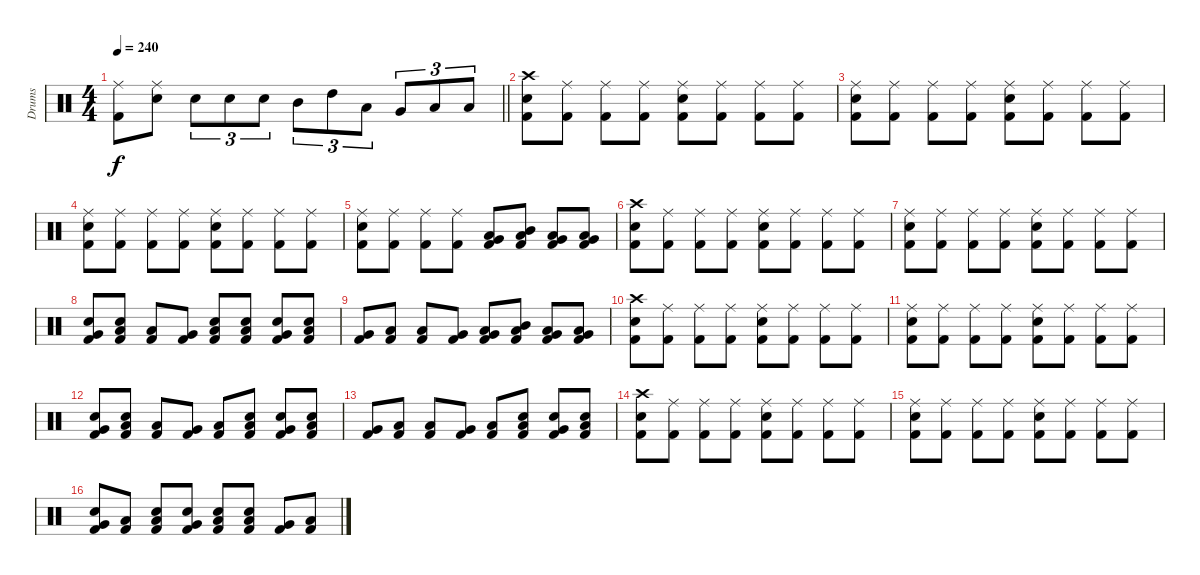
\track ("Drums" "Drums") {instrument percussion}
\staff {score}
\articulation defaults
\ts (4 4)
\tempo 240
\clef neutral
\barLineRight lightlight
\ks c
("Ride (middle)" "Kick (hit) 2").8{dy f} ("Ride (middle)" "Electric Snare (hit)").8 "Electric Snare (hit)".8{tu (3 2)} "Electric Snare (hit)".8{tu (3 2)} "Electric Snare (hit)".8{tu (3 2)} "Mid Tom (hit)".8{tu (3 2)} "High Tom (hit)".8{tu (3 2)} "Low Tom (hit)".8{tu (3 2)} "Very Low Tom (hit)".8{tu (3 2)} "Low Tom (hit)".8{tu (3 2)} "Low Floor Tom (hit)".8{tu (3 2)} |
("Crash high (hit)" "Electric Snare (hit)" "Kick (hit) 2").8 ("Ride (middle)" "Kick (hit) 2").8 ("Ride (middle)" "Kick (hit) 2").8 ("Ride (middle)" "Kick (hit) 2").8 ("Ride (middle)" "Electric Snare (hit)" "Kick (hit) 2").8 ("Ride (middle)" "Kick (hit) 2").8 ("Ride (middle)" "Kick (hit) 2").8 ("Ride (middle)" "Kick (hit) 2").8 |
("Ride (middle)" "Electric Snare (hit)" "Kick (hit) 2").8 ("Ride (middle)" "Kick (hit) 2").8 ("Ride (middle)" "Kick (hit) 2").8 ("Ride (middle)" "Kick (hit) 2").8 ("Ride (middle)" "Electric Snare (hit)" "Kick (hit) 2").8 ("Ride (middle)" "Kick (hit) 2").8 ("Ride (middle)" "Kick (hit) 2").8 ("Ride (middle)" "Kick (hit) 2").8 |
("Ride (middle)" "Electric Snare (hit)" "Kick (hit) 2").8 ("Ride (middle)" "Kick (hit) 2").8 ("Ride (middle)" "Kick (hit) 2").8 ("Ride (middle)" "Kick (hit) 2").8 ("Ride (middle)" "Electric Snare (hit)" "Kick (hit) 2").8 ("Ride (middle)" "Kick (hit) 2").8 ("Ride (middle)" "Kick (hit) 2").8 ("Ride (middle)" "Kick (hit) 2").8 |
("Ride (middle)" "Electric Snare (hit)" "Kick (hit) 2").8 ("Ride (middle)" "Kick (hit) 2").8 ("Ride (middle)" "Kick (hit) 2").8 ("Ride (middle)" "Kick (hit) 2").8 ("Low Floor Tom (hit)" "Very Low Tom (hit)" "Kick (hit) 2").8 ("Low Tom (hit)" "Mid Tom (hit)" "Kick (hit) 2").8 ("Very Low Tom (hit)" "Low Tom (hit)" "Kick (hit) 2").8 ("Low Floor Tom (hit)" "Very Low Tom (hit)" "Kick (hit) 2").8 |
("Crash high (hit)" "Electric Snare (hit)" "Kick (hit) 2").8 ("Ride (middle)" "Kick (hit) 2").8 ("Ride (middle)" "Kick (hit) 2").8 ("Ride (middle)" "Kick (hit) 2").8 ("Ride (middle)" "Electric Snare (hit)" "Kick (hit) 2").8 ("Ride (middle)" "Kick (hit) 2").8 ("Ride (middle)" "Kick (hit) 2").8 ("Ride (middle)" "Kick (hit) 2").8 |
("Ride (middle)" "Electric Snare (hit)" "Kick (hit) 2").8 ("Ride (middle)" "Kick (hit) 2").8 ("Ride (middle)" "Kick (hit) 2").8 ("Ride (middle)" "Kick (hit) 2").8 ("Ride (middle)" "Electric Snare (hit)" "Kick (hit) 2").8 ("Ride (middle)" "Kick (hit) 2").8 ("Ride (middle)" "Kick (hit) 2").8 ("Ride (middle)" "Kick (hit) 2").8 |
("Very Low Tom (hit)" "Electric Snare (hit)" "Kick (hit) 2").8 ("Low Tom (hit)" "Electric Snare (hit)" "Kick (hit) 2").8 ("Low Floor Tom (hit)" "Kick (hit) 2").8 ("Very Low Tom (hit)" "Kick (hit) 2").8 ("Low Floor Tom (hit)" "Electric Snare (hit)" "Kick (hit) 2").8 ("Low Tom (hit)" "Electric Snare (hit)" "Kick (hit) 2").8 ("Very Low Tom (hit)" "Electric Snare (hit)" "Kick (hit) 2").8 ("Low Floor Tom (hit)" "Electric Snare (hit)" "Kick (hit) 2").8 |
("Very Low Tom (hit)" "Kick (hit) 2").8 ("Low Tom (hit)" "Kick (hit) 2").8 ("Low Floor Tom (hit)" "Kick (hit) 2").8 ("Very Low Tom (hit)" "Kick (hit) 2").8 ("Low Floor Tom (hit)" "Very Low Tom (hit)" "Kick (hit) 2").8 ("Low Tom (hit)" "Mid Tom (hit)" "Kick (hit) 2").8 ("Very Low Tom (hit)" "Low Tom (hit)" "Kick (hit) 2").8 ("Low Floor Tom (hit)" "Very Low Tom (hit)" "Kick (hit) 2").8 |
("Crash high (hit)" "Electric Snare (hit)" "Kick (hit) 2").8 ("Ride (middle)" "Kick (hit) 2").8 ("Ride (middle)" "Kick (hit) 2").8 ("Ride (middle)" "Kick (hit) 2").8 ("Ride (middle)" "Electric Snare (hit)" "Kick (hit) 2").8 ("Ride (middle)" "Kick (hit) 2").8 ("Ride (middle)" "Kick (hit) 2").8 ("Ride (middle)" "Kick (hit) 2").8 |
("Ride (middle)" "Electric Snare (hit)" "Kick (hit) 2").8 ("Ride (middle)" "Kick (hit) 2").8 ("Ride (middle)" "Kick (hit) 2").8 ("Ride (middle)" "Kick (hit) 2").8 ("Ride (middle)" "Electric Snare (hit)" "Kick (hit) 2").8 ("Ride (middle)" "Kick (hit) 2").8 ("Ride (middle)" "Kick (hit) 2").8 ("Ride (middle)" "Kick (hit) 2").8 |
("Very Low Tom (hit)" "Electric Snare (hit)" "Kick (hit) 2").8 ("Low Tom (hit)" "Electric Snare (hit)" "Kick (hit) 2").8 ("Low Floor Tom (hit)" "Kick (hit) 2").8 ("Very Low Tom (hit)" "Kick (hit) 2").8 ("Low Floor Tom (hit)" "Kick (hit) 2").8 ("Low Tom (hit)" "Electric Snare (hit)" "Kick (hit) 2").8 ("Very Low Tom (hit)" "Electric Snare (hit)" "Kick (hit) 2").8 ("Low Floor Tom (hit)" "Electric Snare (hit)" "Kick (hit) 2").8 |
("Very Low Tom (hit)" "Kick (hit) 2").8 ("Low Tom (hit)" "Kick (hit) 2").8 ("Low Floor Tom (hit)" "Kick (hit) 2").8 ("Very Low Tom (hit)" "Kick (hit) 2").8 ("Low Floor Tom (hit)" "Kick (hit) 2").8 ("Low Tom (hit)" "Electric Snare (hit)" "Kick (hit) 2").8 ("Very Low Tom (hit)" "Electric Snare (hit)" "Kick (hit) 2").8 ("Low Floor Tom (hit)" "Electric Snare (hit)" "Kick (hit) 2").8 |
("Crash high (hit)" "Electric Snare (hit)" "Kick (hit) 2").8 ("Ride (middle)" "Kick (hit) 2").8 ("Ride (middle)" "Kick (hit) 2").8 ("Ride (middle)" "Kick (hit) 2").8 ("Ride (middle)" "Electric Snare (hit)" "Kick (hit) 2").8 ("Ride (middle)" "Kick (hit) 2").8 ("Ride (middle)" "Kick (hit) 2").8 ("Ride (middle)" "Kick (hit) 2").8 |
("Ride (middle)" "Electric Snare (hit)" "Kick (hit) 2").8 ("Ride (middle)" "Kick (hit) 2").8 ("Ride (middle)" "Kick (hit) 2").8 ("Ride (middle)" "Kick (hit) 2").8 ("Ride (middle)" "Electric Snare (hit)" "Kick (hit) 2").8 ("Ride (middle)" "Kick (hit) 2").8 ("Ride (middle)" "Kick (hit) 2").8 ("Ride (middle)" "Kick (hit) 2").8 |
("Very Low Tom (hit)" "Electric Snare (hit)" "Kick (hit) 2").8 ("Low Tom (hit)" "Kick (hit) 2").8 ("Low Floor Tom (hit)" "Electric Snare (hit)" "Kick (hit) 2").8 ("Very Low Tom (hit)" "Electric Snare (hit)" "Kick (hit) 2").8 ("Low Floor Tom (hit)" "Electric Snare (hit)" "Kick (hit) 2").8 ("Low Tom (hit)" "Electric Snare (hit)" "Kick (hit) 2").8 ("Very Low Tom (hit)" "Kick (hit) 2").8 ("Low Floor Tom (hit)" "Kick (hit) 2").8
